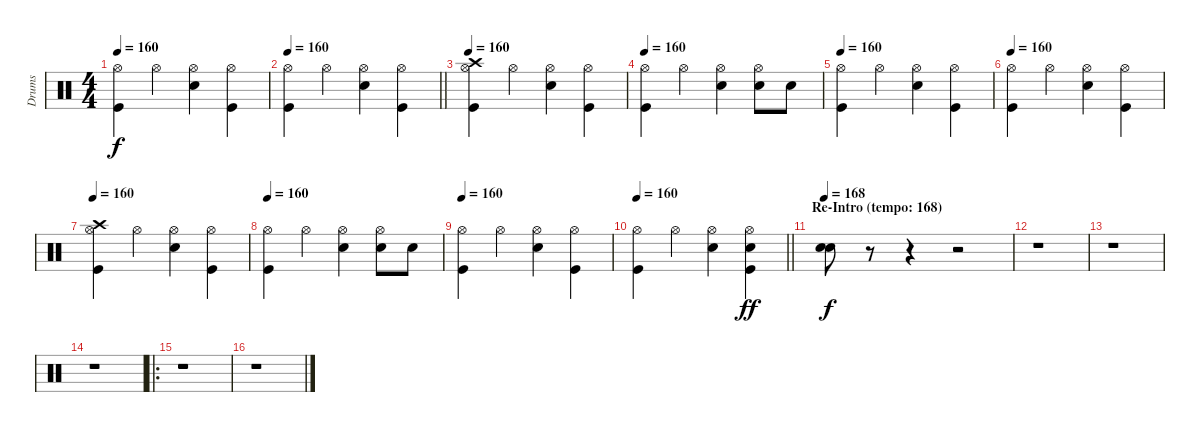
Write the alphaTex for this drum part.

\track ("Drums" "Drums") {instrument percussion}
\staff {score}
\articulation defaults
\ts (4 4)
\tempo 160
\clef neutral
\ks c
("Hi-Hat (open)" "Kick (hit)").4{dy f} "Hi-Hat (open)".4 ("Hi-Hat (open)" "Snare (hit) 2").4 ("Hi-Hat (open)" "Kick (hit)").4 |
\tempo 160
\barLineRight lightlight
("Hi-Hat (open)" "Kick (hit)").4 "Hi-Hat (open)".4 ("Hi-Hat (open)" "Snare (hit) 2").4 ("Hi-Hat (open)" "Kick (hit)").4 |
\tempo 160
("Crash high (hit)" "Hi-Hat (open)" "Kick (hit)").4 "Hi-Hat (open)".4 ("Hi-Hat (open)" "Snare (hit) 2").4 ("Hi-Hat (open)" "Kick (hit)").4 |
\tempo 160
("Hi-Hat (open)" "Kick (hit)").4 "Hi-Hat (open)".4 ("Hi-Hat (open)" "Snare (hit) 2").4 ("Hi-Hat (open)" "Snare (hit) 2").8 "Snare (hit) 2".8 |
\tempo 160
("Hi-Hat (open)" "Kick (hit)").4 "Hi-Hat (open)".4 ("Hi-Hat (open)" "Snare (hit) 2").4 ("Hi-Hat (open)" "Kick (hit)").4 |
\tempo 160
("Hi-Hat (open)" "Kick (hit)").4 "Hi-Hat (open)".4 ("Hi-Hat (open)" "Snare (hit) 2").4 ("Hi-Hat (open)" "Kick (hit)").4 |
\tempo 160
("Crash high (hit)" "Hi-Hat (open)" "Kick (hit)").4 "Hi-Hat (open)".4 ("Hi-Hat (open)" "Snare (hit) 2").4 ("Hi-Hat (open)" "Kick (hit)").4 |
\tempo 160
("Hi-Hat (open)" "Kick (hit)").4 "Hi-Hat (open)".4 ("Hi-Hat (open)" "Snare (hit) 2").4 ("Hi-Hat (open)" "Snare (hit) 2").8 "Snare (hit) 2".8 |
\tempo 160
("Hi-Hat (open)" "Kick (hit)").4 "Hi-Hat (open)".4 ("Hi-Hat (open)" "Snare (hit) 2").4 ("Hi-Hat (open)" "Kick (hit)").4 |
\tempo 160
\barLineRight lightlight
("Hi-Hat (open)" "Kick (hit)").4 "Hi-Hat (open)".4 ("Hi-Hat (open)" "Snare (hit) 2").4 ("Hi-Hat (open)" "Snare (hit) 2" "Kick (hit)").4{dy ff} |
\section ("" "Re-Intro (tempo: 168)")
\tempo 168
("Snare (hit) 2" "Snare (hit) 2").8{bd 120 dy f} r.8 r.4 r.2 |
r.1 |
r.1 |
r.1 |
\ro
r.1 |
r.1
